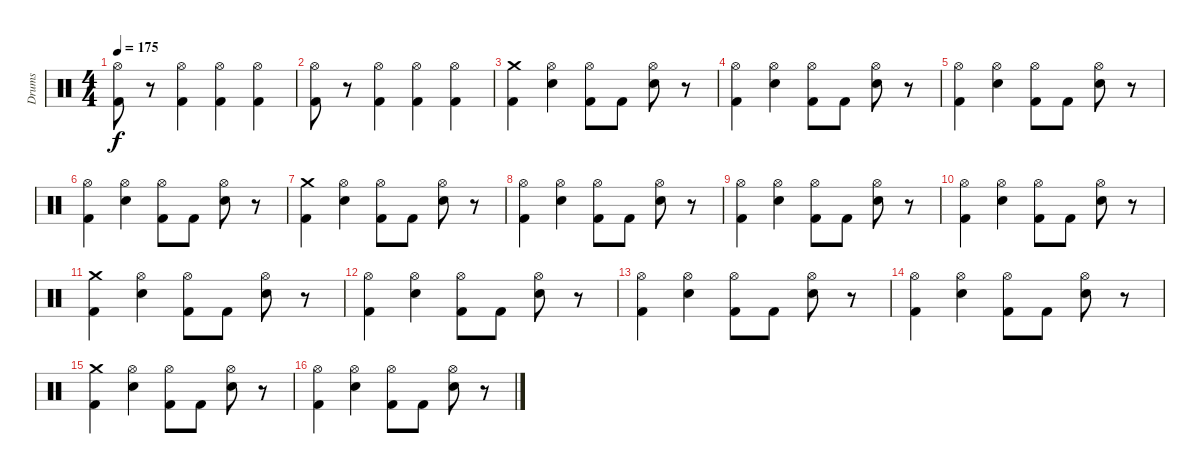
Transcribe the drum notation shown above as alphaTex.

\track ("Drums" "Drums") {instrument percussion}
\staff {score}
\articulation defaults
\ts (4 4)
\tempo 175
\clef neutral
\ks c
("Hi-Hat (open)" "Kick (hit) 2").8{dy f} r.8 ("Kick (hit) 2" "Hi-Hat (open)").4 ("Hi-Hat (open)" "Kick (hit) 2").4 ("Kick (hit) 2" "Hi-Hat (open)").4 |
("Hi-Hat (open)" "Kick (hit) 2").8 r.8 ("Kick (hit) 2" "Hi-Hat (open)").4 ("Hi-Hat (open)" "Kick (hit) 2").4 ("Kick (hit) 2" "Hi-Hat (open)").4 |
("Crash medium (hit)" "Kick (hit) 2").4 ("Hi-Hat (open)" "Electric Snare (hit)").4 ("Hi-Hat (open)" "Kick (hit) 2").8 "Kick (hit) 2".8 ("Hi-Hat (open)" "Electric Snare (hit)").8 r.8 |
("Hi-Hat (open)" "Kick (hit) 2").4 ("Hi-Hat (open)" "Electric Snare (hit)").4 ("Hi-Hat (open)" "Kick (hit) 2").8 "Kick (hit) 2".8 ("Hi-Hat (open)" "Electric Snare (hit)").8 r.8 |
("Hi-Hat (open)" "Kick (hit) 2").4 ("Hi-Hat (open)" "Electric Snare (hit)").4 ("Hi-Hat (open)" "Kick (hit) 2").8 "Kick (hit) 2".8 ("Hi-Hat (open)" "Electric Snare (hit)").8 r.8 |
("Hi-Hat (open)" "Kick (hit) 2").4 ("Hi-Hat (open)" "Electric Snare (hit)").4 ("Hi-Hat (open)" "Kick (hit) 2").8 "Kick (hit) 2".8 ("Hi-Hat (open)" "Electric Snare (hit)").8 r.8 |
("Crash medium (hit)" "Kick (hit) 2").4 ("Hi-Hat (open)" "Electric Snare (hit)").4 ("Hi-Hat (open)" "Kick (hit) 2").8 "Kick (hit) 2".8 ("Hi-Hat (open)" "Electric Snare (hit)").8 r.8 |
("Hi-Hat (open)" "Kick (hit) 2").4 ("Hi-Hat (open)" "Electric Snare (hit)").4 ("Hi-Hat (open)" "Kick (hit) 2").8 "Kick (hit) 2".8 ("Hi-Hat (open)" "Electric Snare (hit)").8 r.8 |
("Hi-Hat (open)" "Kick (hit) 2").4 ("Hi-Hat (open)" "Electric Snare (hit)").4 ("Hi-Hat (open)" "Kick (hit) 2").8 "Kick (hit) 2".8 ("Hi-Hat (open)" "Electric Snare (hit)").8 r.8 |
("Hi-Hat (open)" "Kick (hit) 2").4 ("Hi-Hat (open)" "Electric Snare (hit)").4 ("Hi-Hat (open)" "Kick (hit) 2").8 "Kick (hit) 2".8 ("Hi-Hat (open)" "Electric Snare (hit)").8 r.8 |
("Crash medium (hit)" "Kick (hit) 2").4 ("Hi-Hat (open)" "Electric Snare (hit)").4 ("Hi-Hat (open)" "Kick (hit) 2").8 "Kick (hit) 2".8 ("Hi-Hat (open)" "Electric Snare (hit)").8 r.8 |
("Hi-Hat (open)" "Kick (hit) 2").4 ("Hi-Hat (open)" "Electric Snare (hit)").4 ("Hi-Hat (open)" "Kick (hit) 2").8 "Kick (hit) 2".8 ("Hi-Hat (open)" "Electric Snare (hit)").8 r.8 |
("Hi-Hat (open)" "Kick (hit) 2").4 ("Hi-Hat (open)" "Electric Snare (hit)").4 ("Hi-Hat (open)" "Kick (hit) 2").8 "Kick (hit) 2".8 ("Hi-Hat (open)" "Electric Snare (hit)").8 r.8 |
("Hi-Hat (open)" "Kick (hit) 2").4 ("Hi-Hat (open)" "Electric Snare (hit)").4 ("Hi-Hat (open)" "Kick (hit) 2").8 "Kick (hit) 2".8 ("Hi-Hat (open)" "Electric Snare (hit)").8 r.8 |
("Crash medium (hit)" "Kick (hit) 2").4 ("Hi-Hat (open)" "Electric Snare (hit)").4 ("Hi-Hat (open)" "Kick (hit) 2").8 "Kick (hit) 2".8 ("Hi-Hat (open)" "Electric Snare (hit)").8 r.8 |
("Hi-Hat (open)" "Kick (hit) 2").4 ("Hi-Hat (open)" "Electric Snare (hit)").4 ("Hi-Hat (open)" "Kick (hit) 2").8 "Kick (hit) 2".8 ("Hi-Hat (open)" "Electric Snare (hit)").8 r.8
